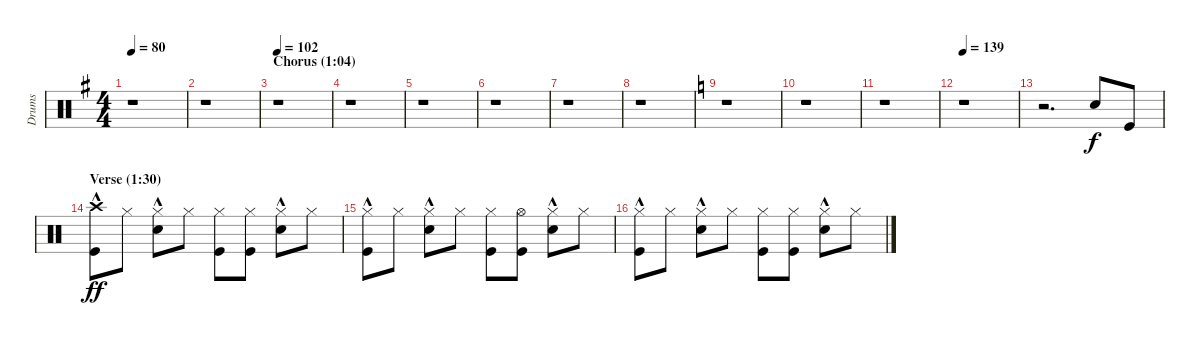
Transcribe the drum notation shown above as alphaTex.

\track ("Drums" "Drums") {instrument percussion}
\staff {score}
\articulation defaults
\ts (4 4)
\tempo 80
\clef neutral
\ks g
r.1{dy f} |
r.1 |
\section ("" "Chorus (1:04)")
\tempo 102
r.1 |
r.1 |
r.1 |
r.1 |
r.1 |
r.1 |
\ks c
r.1 |
r.1 |
r.1 |
\tempo 139
r.1 |
r.2{d} "Snare (hit) 2".8 "Kick (hit)".8 |
\section ("" "Verse (1:30)")
("Crash high (hit)" "Kick (hit)"{hac}).8{dy ff} "Hi-Hat (closed)".8 ("Hi-Hat (closed)" "Snare (hit) 2"{hac}).8 "Hi-Hat (closed)".8 ("Hi-Hat (closed)" "Kick (hit)").8 ("Hi-Hat (closed)" "Kick (hit)").8 ("Hi-Hat (closed)" "Snare (hit) 2"{hac}).8 "Hi-Hat (closed)".8 |
("Hi-Hat (closed)" "Kick (hit)"{hac}).8 "Hi-Hat (closed)".8 ("Hi-Hat (closed)" "Snare (hit) 2"{hac}).8 "Hi-Hat (closed)".8 ("Hi-Hat (closed)" "Kick (hit)").8 ("Hi-Hat (open)" "Kick (hit)").8 ("Hi-Hat (closed)" "Snare (hit) 2"{hac}).8 "Hi-Hat (closed)".8 |
("Hi-Hat (closed)" "Kick (hit)"{hac}).8 "Hi-Hat (closed)".8 ("Hi-Hat (closed)" "Snare (hit) 2"{hac}).8 "Hi-Hat (closed)".8 ("Hi-Hat (closed)" "Kick (hit)").8 ("Hi-Hat (closed)" "Kick (hit)").8 ("Hi-Hat (closed)" "Snare (hit) 2"{hac}).8 "Hi-Hat (closed)".8
